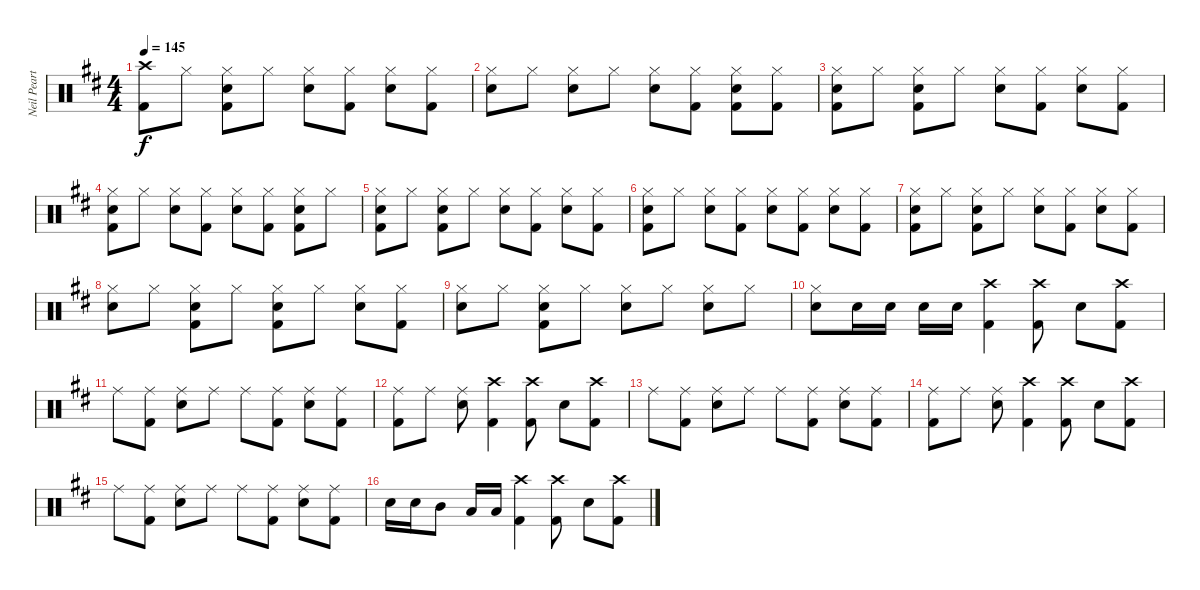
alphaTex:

\track ("Neil Peart" "Neil Peart") {instrument percussion}
\staff {score}
\articulation defaults
\ts (4 4)
\tempo 145
\clef neutral
\ks d
("Crash high (hit)" "Kick (hit) 2").8{dy f} "Hi-Hat (closed)".8 ("Hi-Hat (closed)" "Snare (hit) 2" "Kick (hit) 2").8 "Hi-Hat (closed)".8 ("Hi-Hat (closed)" "Snare (hit) 2").8 ("Hi-Hat (closed)" "Kick (hit) 2").8 ("Hi-Hat (closed)" "Snare (hit) 2").8 ("Hi-Hat (closed)" "Kick (hit) 2").8 |
("Hi-Hat (closed)" "Snare (hit) 2").8 "Hi-Hat (closed)".8 ("Hi-Hat (closed)" "Snare (hit) 2").8 "Hi-Hat (closed)".8 ("Hi-Hat (closed)" "Snare (hit) 2").8 ("Hi-Hat (closed)" "Kick (hit) 2").8 ("Hi-Hat (closed)" "Snare (hit) 2" "Kick (hit) 2").8 ("Hi-Hat (closed)" "Kick (hit) 2").8 |
("Hi-Hat (closed)" "Snare (hit) 2" "Kick (hit) 2").8 "Hi-Hat (closed)".8 ("Hi-Hat (closed)" "Snare (hit) 2" "Kick (hit) 2").8 "Hi-Hat (closed)".8 ("Hi-Hat (closed)" "Snare (hit) 2").8 ("Hi-Hat (closed)" "Kick (hit) 2").8 ("Hi-Hat (closed)" "Snare (hit) 2").8 ("Hi-Hat (closed)" "Kick (hit) 2").8 |
("Hi-Hat (closed)" "Snare (hit) 2" "Kick (hit) 2").8 "Hi-Hat (closed)".8 ("Hi-Hat (closed)" "Snare (hit) 2").8 ("Hi-Hat (closed)" "Kick (hit) 2").8 ("Hi-Hat (closed)" "Snare (hit) 2").8 ("Hi-Hat (closed)" "Kick (hit) 2").8 ("Hi-Hat (closed)" "Snare (hit) 2" "Kick (hit) 2").8 "Hi-Hat (closed)".8 |
("Hi-Hat (closed)" "Snare (hit) 2" "Kick (hit) 2").8 "Hi-Hat (closed)".8 ("Hi-Hat (closed)" "Snare (hit) 2" "Kick (hit) 2").8 "Hi-Hat (closed)".8 ("Hi-Hat (closed)" "Snare (hit) 2").8 ("Hi-Hat (closed)" "Kick (hit) 2").8 ("Hi-Hat (closed)" "Snare (hit) 2").8 ("Hi-Hat (closed)" "Kick (hit) 2").8 |
("Hi-Hat (closed)" "Snare (hit) 2" "Kick (hit) 2").8 "Hi-Hat (closed)".8 ("Hi-Hat (closed)" "Snare (hit) 2").8 ("Hi-Hat (closed)" "Kick (hit) 2").8 ("Hi-Hat (closed)" "Snare (hit) 2").8 ("Hi-Hat (closed)" "Kick (hit) 2").8 ("Hi-Hat (closed)" "Snare (hit) 2").8 ("Hi-Hat (closed)" "Kick (hit) 2").8 |
("Hi-Hat (closed)" "Snare (hit) 2" "Kick (hit) 2").8 "Hi-Hat (closed)".8 ("Hi-Hat (closed)" "Snare (hit) 2" "Kick (hit) 2").8 "Hi-Hat (closed)".8 ("Hi-Hat (closed)" "Snare (hit) 2").8 ("Hi-Hat (closed)" "Kick (hit) 2").8 ("Hi-Hat (closed)" "Snare (hit) 2").8 ("Hi-Hat (closed)" "Kick (hit) 2").8 |
("Hi-Hat (closed)" "Snare (hit) 2").8 "Hi-Hat (closed)".8 ("Hi-Hat (closed)" "Snare (hit) 2" "Kick (hit) 2").8 "Hi-Hat (closed)".8 ("Hi-Hat (closed)" "Snare (hit) 2" "Kick (hit) 2").8 "Hi-Hat (closed)".8 ("Hi-Hat (closed)" "Snare (hit) 2").8 ("Hi-Hat (closed)" "Kick (hit) 2").8 |
("Hi-Hat (closed)" "Snare (hit) 2").8 "Hi-Hat (closed)".8 ("Hi-Hat (closed)" "Snare (hit) 2" "Kick (hit) 2").8 "Hi-Hat (closed)".8 ("Hi-Hat (closed)" "Snare (hit) 2").8 "Hi-Hat (closed)".8 ("Hi-Hat (closed)" "Snare (hit) 2").8 "Hi-Hat (closed)".8 |
("Hi-Hat (closed)" "Snare (hit) 2").8 "Snare (hit) 2".16 "Snare (hit) 2".16 "Snare (hit) 2".16 "Snare (hit) 2".16 ("Crash high (hit)" "Kick (hit) 2").4 ("Crash high (hit)" "Kick (hit) 2").8 "Snare (hit) 2".8 ("Crash high (hit)" "Kick (hit) 2").8 |
"Ride (middle)".8 ("Ride (middle)" "Kick (hit) 2").8 ("Ride (middle)" "Snare (hit) 2").8 "Ride (middle)".8 "Ride (middle)".8 ("Ride (middle)" "Kick (hit) 2").8 ("Ride (middle)" "Snare (hit) 2").8 ("Ride (middle)" "Kick (hit) 2").8 |
("Ride (middle)" "Kick (hit) 2").8 "Ride (middle)".8 ("Ride (middle)" "Snare (hit) 2").8 ("Crash high (hit)" "Kick (hit) 2").4 ("Crash high (hit)" "Kick (hit) 2").8 "Snare (hit) 2".8 ("Crash high (hit)" "Kick (hit) 2").8 |
"Ride (middle)".8 ("Ride (middle)" "Kick (hit) 2").8 ("Ride (middle)" "Snare (hit) 2").8 "Ride (middle)".8 "Ride (middle)".8 ("Ride (middle)" "Kick (hit) 2").8 ("Ride (middle)" "Snare (hit) 2").8 ("Ride (middle)" "Kick (hit) 2").8 |
("Ride (middle)" "Kick (hit) 2").8 "Ride (middle)".8 ("Ride (middle)" "Snare (hit) 2").8 ("Crash high (hit)" "Kick (hit) 2").4 ("Crash high (hit)" "Kick (hit) 2").8 "Snare (hit) 2".8 ("Crash high (hit)" "Kick (hit) 2").8 |
"Ride (middle)".8 ("Ride (middle)" "Kick (hit) 2").8 ("Ride (middle)" "Snare (hit) 2").8 "Ride (middle)".8 "Ride (middle)".8 ("Ride (middle)" "Kick (hit) 2").8 ("Ride (middle)" "Snare (hit) 2").8 ("Ride (middle)" "Kick (hit) 2").8 |
"Snare (hit) 2".16 "Snare (hit) 2".16 "Mid Tom (hit)".8 "Low Tom (hit)".16 "Low Tom (hit)".16 ("Crash high (hit)" "Kick (hit) 2").4 ("Crash high (hit)" "Kick (hit) 2").8 "Snare (hit) 2".8 ("Crash high (hit)" "Kick (hit) 2").8
